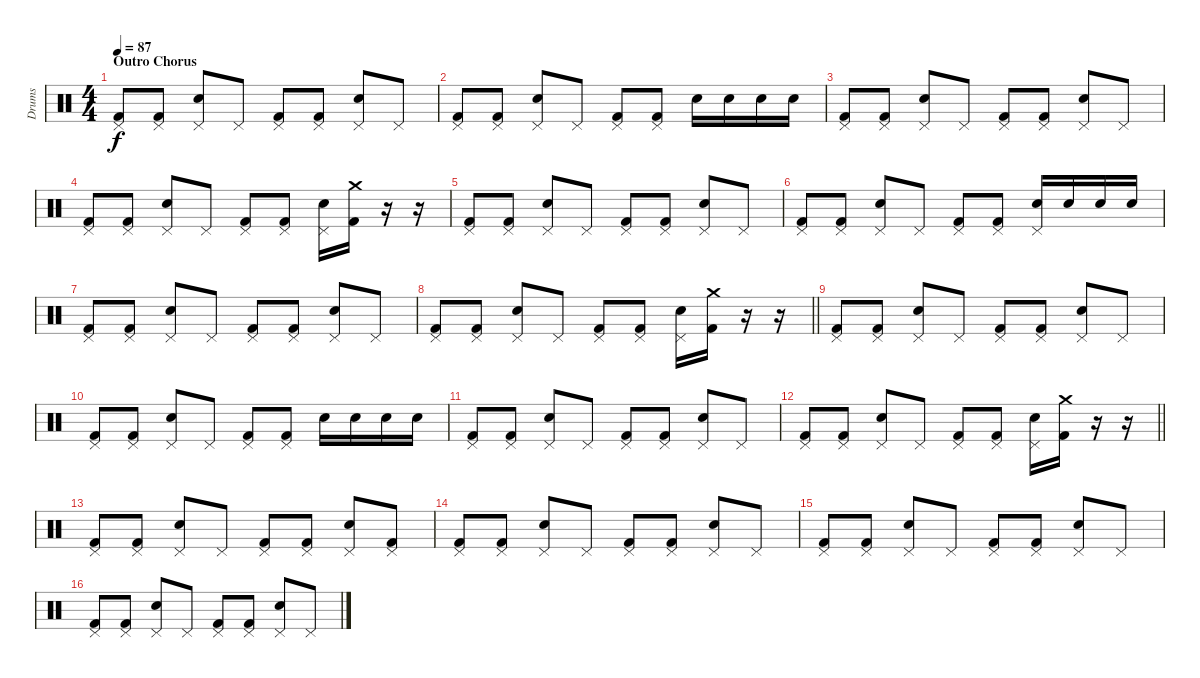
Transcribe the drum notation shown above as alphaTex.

\track ("Drums" "Drums") {instrument percussion}
\staff {score}
\articulation defaults
\ts (4 4)
\section ("" "Outro Chorus")
\tempo 87
\clef neutral
\ks c
("Pedal Hi-Hat (hit)" "Kick (hit) 2").8{dy f} ("Pedal Hi-Hat (hit)" "Kick (hit) 2").8 ("Pedal Hi-Hat (hit)" "Snare (hit) 2").8 "Pedal Hi-Hat (hit)".8 ("Pedal Hi-Hat (hit)" "Kick (hit) 2").8 ("Pedal Hi-Hat (hit)" "Kick (hit) 2").8 ("Pedal Hi-Hat (hit)" "Snare (hit) 2").8 "Pedal Hi-Hat (hit)".8 |
("Pedal Hi-Hat (hit)" "Kick (hit) 2").8 ("Pedal Hi-Hat (hit)" "Kick (hit) 2").8 ("Pedal Hi-Hat (hit)" "Snare (hit) 2").8 "Pedal Hi-Hat (hit)".8 ("Pedal Hi-Hat (hit)" "Kick (hit) 2").8 ("Pedal Hi-Hat (hit)" "Kick (hit) 2").8 "Snare (hit) 2".16 "Snare (hit) 2".16 "Snare (hit) 2".16 "Snare (hit) 2".16 |
("Pedal Hi-Hat (hit)" "Kick (hit) 2").8 ("Pedal Hi-Hat (hit)" "Kick (hit) 2").8 ("Pedal Hi-Hat (hit)" "Snare (hit) 2").8 "Pedal Hi-Hat (hit)".8 ("Pedal Hi-Hat (hit)" "Kick (hit) 2").8 ("Pedal Hi-Hat (hit)" "Kick (hit) 2").8 ("Pedal Hi-Hat (hit)" "Snare (hit) 2").8 "Pedal Hi-Hat (hit)".8 |
("Pedal Hi-Hat (hit)" "Kick (hit) 2").8 ("Pedal Hi-Hat (hit)" "Kick (hit) 2").8 ("Pedal Hi-Hat (hit)" "Snare (hit) 2").8 "Pedal Hi-Hat (hit)".8 ("Pedal Hi-Hat (hit)" "Kick (hit) 2").8 ("Pedal Hi-Hat (hit)" "Kick (hit) 2").8 ("Pedal Hi-Hat (hit)" "Snare (hit) 2").16 ("Crash medium (hit)" "Kick (hit) 2").16 r.16 r.16 |
("Pedal Hi-Hat (hit)" "Kick (hit) 2").8 ("Pedal Hi-Hat (hit)" "Kick (hit) 2").8 ("Pedal Hi-Hat (hit)" "Snare (hit) 2").8 "Pedal Hi-Hat (hit)".8 ("Pedal Hi-Hat (hit)" "Kick (hit) 2").8 ("Pedal Hi-Hat (hit)" "Kick (hit) 2").8 ("Pedal Hi-Hat (hit)" "Snare (hit) 2").8 "Pedal Hi-Hat (hit)".8 |
("Pedal Hi-Hat (hit)" "Kick (hit) 2").8 ("Pedal Hi-Hat (hit)" "Kick (hit) 2").8 ("Pedal Hi-Hat (hit)" "Snare (hit) 2").8 "Pedal Hi-Hat (hit)".8 ("Pedal Hi-Hat (hit)" "Kick (hit) 2").8 ("Pedal Hi-Hat (hit)" "Kick (hit) 2").8 ("Pedal Hi-Hat (hit)" "Snare (hit) 2").16 "Snare (hit) 2".16 "Snare (hit) 2".16 "Snare (hit) 2".16 |
("Pedal Hi-Hat (hit)" "Kick (hit) 2").8 ("Pedal Hi-Hat (hit)" "Kick (hit) 2").8 ("Pedal Hi-Hat (hit)" "Snare (hit) 2").8 "Pedal Hi-Hat (hit)".8 ("Pedal Hi-Hat (hit)" "Kick (hit) 2").8 ("Pedal Hi-Hat (hit)" "Kick (hit) 2").8 ("Pedal Hi-Hat (hit)" "Snare (hit) 2").8 "Pedal Hi-Hat (hit)".8 |
\barLineRight lightlight
("Pedal Hi-Hat (hit)" "Kick (hit) 2").8 ("Pedal Hi-Hat (hit)" "Kick (hit) 2").8 ("Pedal Hi-Hat (hit)" "Snare (hit) 2").8 "Pedal Hi-Hat (hit)".8 ("Pedal Hi-Hat (hit)" "Kick (hit) 2").8 ("Pedal Hi-Hat (hit)" "Kick (hit) 2").8 ("Pedal Hi-Hat (hit)" "Snare (hit) 2").16 ("Crash medium (hit)" "Kick (hit) 2").16 r.16 r.16 |
("Pedal Hi-Hat (hit)" "Kick (hit) 2").8 ("Pedal Hi-Hat (hit)" "Kick (hit) 2").8 ("Pedal Hi-Hat (hit)" "Snare (hit) 2").8 "Pedal Hi-Hat (hit)".8 ("Pedal Hi-Hat (hit)" "Kick (hit) 2").8 ("Pedal Hi-Hat (hit)" "Kick (hit) 2").8 ("Pedal Hi-Hat (hit)" "Snare (hit) 2").8 "Pedal Hi-Hat (hit)".8 |
("Pedal Hi-Hat (hit)" "Kick (hit) 2").8 ("Pedal Hi-Hat (hit)" "Kick (hit) 2").8 ("Pedal Hi-Hat (hit)" "Snare (hit) 2").8 "Pedal Hi-Hat (hit)".8 ("Pedal Hi-Hat (hit)" "Kick (hit) 2").8 ("Pedal Hi-Hat (hit)" "Kick (hit) 2").8 "Snare (hit) 2".16 "Snare (hit) 2".16 "Snare (hit) 2".16 "Snare (hit) 2".16 |
("Pedal Hi-Hat (hit)" "Kick (hit) 2").8 ("Pedal Hi-Hat (hit)" "Kick (hit) 2").8 ("Pedal Hi-Hat (hit)" "Snare (hit) 2").8 "Pedal Hi-Hat (hit)".8 ("Pedal Hi-Hat (hit)" "Kick (hit) 2").8 ("Pedal Hi-Hat (hit)" "Kick (hit) 2").8 ("Pedal Hi-Hat (hit)" "Snare (hit) 2").8 "Pedal Hi-Hat (hit)".8 |
\barLineRight lightlight
("Pedal Hi-Hat (hit)" "Kick (hit) 2").8 ("Pedal Hi-Hat (hit)" "Kick (hit) 2").8 ("Pedal Hi-Hat (hit)" "Snare (hit) 2").8 "Pedal Hi-Hat (hit)".8 ("Pedal Hi-Hat (hit)" "Kick (hit) 2").8 ("Pedal Hi-Hat (hit)" "Kick (hit) 2").8 ("Pedal Hi-Hat (hit)" "Snare (hit) 2").16 ("Crash medium (hit)" "Kick (hit) 2").16 r.16 r.16 |
("Pedal Hi-Hat (hit)" "Kick (hit) 2").8 ("Pedal Hi-Hat (hit)" "Kick (hit) 2").8 ("Pedal Hi-Hat (hit)" "Snare (hit) 2").8 "Pedal Hi-Hat (hit)".8 ("Pedal Hi-Hat (hit)" "Kick (hit) 2").8 ("Pedal Hi-Hat (hit)" "Kick (hit) 2").8 ("Pedal Hi-Hat (hit)" "Snare (hit) 2").8 ("Pedal Hi-Hat (hit)" "Kick (hit) 2").8 |
("Pedal Hi-Hat (hit)" "Kick (hit) 2").8 ("Pedal Hi-Hat (hit)" "Kick (hit) 2").8 ("Pedal Hi-Hat (hit)" "Snare (hit) 2").8 "Pedal Hi-Hat (hit)".8 ("Pedal Hi-Hat (hit)" "Kick (hit) 2").8 ("Pedal Hi-Hat (hit)" "Kick (hit) 2").8 ("Pedal Hi-Hat (hit)" "Snare (hit) 2").8 "Pedal Hi-Hat (hit)".8 |
("Pedal Hi-Hat (hit)" "Kick (hit) 2").8 ("Pedal Hi-Hat (hit)" "Kick (hit) 2").8 ("Pedal Hi-Hat (hit)" "Snare (hit) 2").8 "Pedal Hi-Hat (hit)".8 ("Pedal Hi-Hat (hit)" "Kick (hit) 2").8 ("Pedal Hi-Hat (hit)" "Kick (hit) 2").8 ("Pedal Hi-Hat (hit)" "Snare (hit) 2").8 "Pedal Hi-Hat (hit)".8 |
("Pedal Hi-Hat (hit)" "Kick (hit) 2").8 ("Pedal Hi-Hat (hit)" "Kick (hit) 2").8 ("Pedal Hi-Hat (hit)" "Snare (hit) 2").8 "Pedal Hi-Hat (hit)".8 ("Pedal Hi-Hat (hit)" "Kick (hit) 2").8 ("Pedal Hi-Hat (hit)" "Kick (hit) 2").8 ("Pedal Hi-Hat (hit)" "Snare (hit) 2").8 "Pedal Hi-Hat (hit)".8
